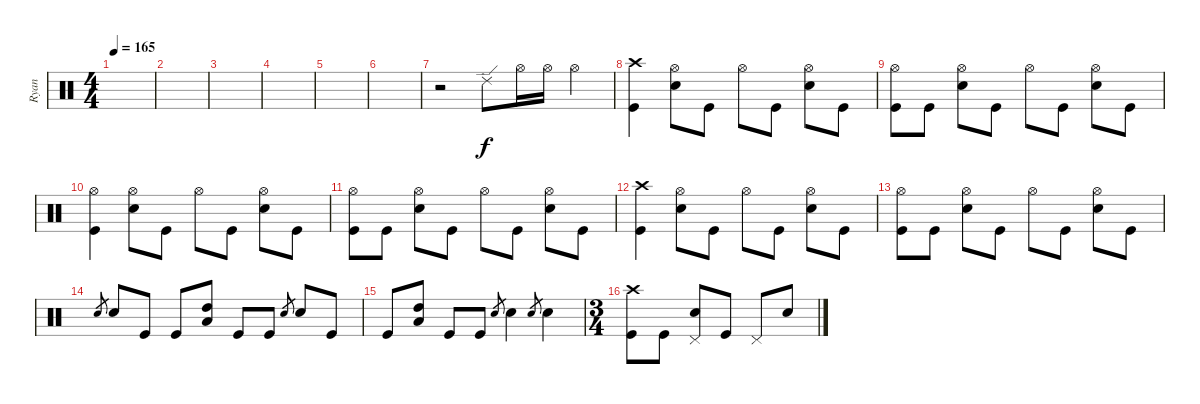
\track ("Ryan" "Ryan") {instrument percussion}
\staff {score}
\articulation defaults
\ts (4 4)
\tempo 165
\clef neutral
\ks c
|
|
|
|
|
|
r.2 "Ride (edge) 2".8{dy f} "Hi-Hat (open)".16 "Hi-Hat (open)".16 "Hi-Hat (open)".4 |
("Crash high (hit)" "Kick (hit)").4 ("Hi-Hat (open)" "Electric Snare (hit)").8 "Kick (hit)".8 "Hi-Hat (open)".8 "Kick (hit)".8 ("Hi-Hat (open)" "Electric Snare (hit)").8 "Kick (hit)".8 |
("Hi-Hat (open)" "Kick (hit)").8 "Kick (hit)".8 ("Hi-Hat (open)" "Electric Snare (hit)").8 "Kick (hit)".8 "Hi-Hat (open)".8 "Kick (hit)".8 ("Hi-Hat (open)" "Electric Snare (hit)").8 "Kick (hit)".8 |
("Hi-Hat (open)" "Kick (hit)").4 ("Hi-Hat (open)" "Electric Snare (hit)").8 "Kick (hit)".8 "Hi-Hat (open)".8 "Kick (hit)".8 ("Hi-Hat (open)" "Electric Snare (hit)").8 "Kick (hit)".8 |
("Hi-Hat (open)" "Kick (hit)").8 "Kick (hit)".8 ("Hi-Hat (open)" "Electric Snare (hit)").8 "Kick (hit)".8 "Hi-Hat (open)".8 "Kick (hit)".8 ("Hi-Hat (open)" "Electric Snare (hit)").8 "Kick (hit)".8 |
("Crash high (hit)" "Kick (hit)").4 ("Hi-Hat (open)" "Electric Snare (hit)").8 "Kick (hit)".8 "Hi-Hat (open)".8 "Kick (hit)".8 ("Hi-Hat (open)" "Electric Snare (hit)").8 "Kick (hit)".8 |
("Hi-Hat (open)" "Kick (hit)").8 "Kick (hit)".8 ("Hi-Hat (open)" "Electric Snare (hit)").8 "Kick (hit)".8 "Hi-Hat (open)".8 "Kick (hit)".8 ("Hi-Hat (open)" "Electric Snare (hit)").8 "Kick (hit)".8 |
"Electric Snare (hit)".8{gr} "Electric Snare (hit)".8 "Kick (hit)".8 "Kick (hit)".8 ("High Tom (hit)" "Low Floor Tom (hit)").8 "Kick (hit)".8 "Kick (hit)".8 "Electric Snare (hit)".8{gr} "Electric Snare (hit)".8 "Kick (hit)".8 |
"Kick (hit)".8 ("High Tom (hit)" "Low Floor Tom (hit)").8 "Kick (hit)".8 "Kick (hit)".8 "Electric Snare (hit)".8{gr} "Electric Snare (hit)".4 "Electric Snare (hit)".8{gr} "Electric Snare (hit)".4 |
\ts (3 4)
("Crash high (hit)" "Kick (hit)").8 "Kick (hit)".8 ("Pedal Hi-Hat (hit)" "Electric Snare (hit)").8 "Kick (hit)".8 "Pedal Hi-Hat (hit)".8 "Electric Snare (hit)".8
